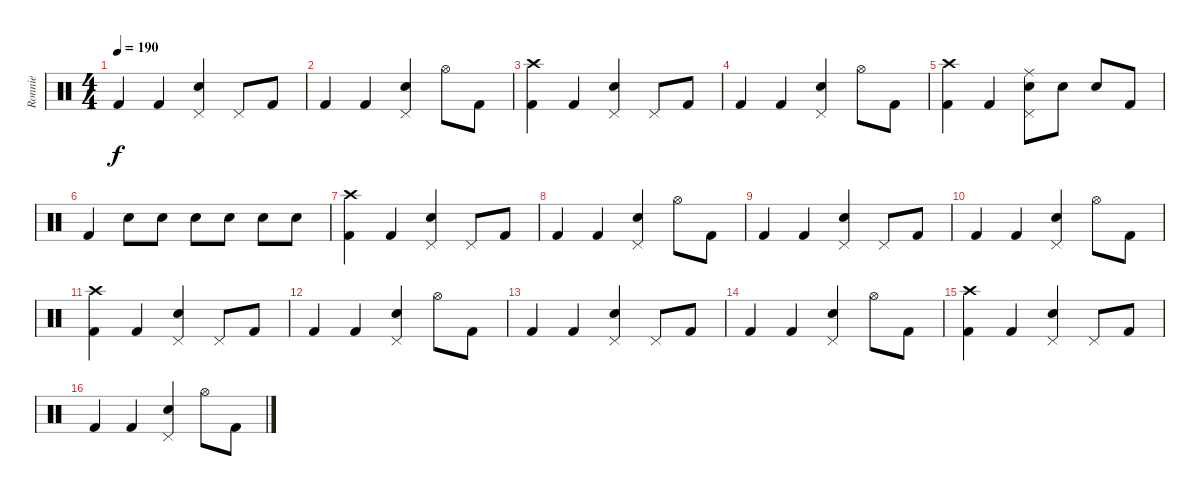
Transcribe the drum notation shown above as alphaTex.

\track ("Ronnie" "Ronnie") {instrument percussion}
\staff {score}
\articulation defaults
\ts (4 4)
\tempo 190
\clef neutral
\ks c "Kick (hit) 2".4{dy f} "Kick (hit) 2".4
("Electric Snare (hit)" "Pedal Hi-Hat (hit)").4 "Pedal Hi-Hat (hit)".8 "Kick (hit) 2".8 |
"Kick (hit) 2".4 "Kick (hit) 2".4 ("Electric Snare (hit)" "Pedal Hi-Hat (hit)").4 "Hi-Hat (open)".8 "Kick (hit) 2".8 |
("Crash high (hit)" "Kick (hit) 2").4 "Kick (hit) 2".4 ("Electric Snare (hit)" "Pedal Hi-Hat (hit)").4 "Pedal Hi-Hat (hit)".8 "Kick (hit) 2".8 |
"Kick (hit) 2".4 "Kick (hit) 2".4 ("Electric Snare (hit)" "Pedal Hi-Hat (hit)").4 "Hi-Hat (open)".8 "Kick (hit) 2".8 |
("Crash high (hit)" "Kick (hit) 2").4 "Kick (hit) 2".4 ("Ride (middle)" "Pedal Hi-Hat (hit)" "Electric Snare (hit)").8 "Electric Snare (hit)".8 "Electric Snare (hit)".8 "Kick (hit) 2".8 |
"Kick (hit) 2".4 "Electric Snare (hit)".8 "Electric Snare (hit)".8 "Electric Snare (hit)".8 "Electric Snare (hit)".8 "Electric Snare (hit)".8 "Electric Snare (hit)".8 |
("Crash high (hit)" "Kick (hit) 2").4 "Kick (hit) 2".4 ("Electric Snare (hit)" "Pedal Hi-Hat (hit)").4 "Pedal Hi-Hat (hit)".8 "Kick (hit) 2".8 |
"Kick (hit) 2".4 "Kick (hit) 2".4 ("Electric Snare (hit)" "Pedal Hi-Hat (hit)").4 "Hi-Hat (open)".8 "Kick (hit) 2".8 |
"Kick (hit) 2".4 "Kick (hit) 2".4 ("Electric Snare (hit)" "Pedal Hi-Hat (hit)").4 "Pedal Hi-Hat (hit)".8 "Kick (hit) 2".8 |
"Kick (hit) 2".4 "Kick (hit) 2".4 ("Electric Snare (hit)" "Pedal Hi-Hat (hit)").4 "Hi-Hat (open)".8 "Kick (hit) 2".8 |
("Crash high (hit)" "Kick (hit) 2").4 "Kick (hit) 2".4 ("Electric Snare (hit)" "Pedal Hi-Hat (hit)").4 "Pedal Hi-Hat (hit)".8 "Kick (hit) 2".8 |
"Kick (hit) 2".4 "Kick (hit) 2".4 ("Electric Snare (hit)" "Pedal Hi-Hat (hit)").4 "Hi-Hat (open)".8 "Kick (hit) 2".8 |
"Kick (hit) 2".4 "Kick (hit) 2".4 ("Electric Snare (hit)" "Pedal Hi-Hat (hit)").4 "Pedal Hi-Hat (hit)".8 "Kick (hit) 2".8 |
"Kick (hit) 2".4 "Kick (hit) 2".4 ("Electric Snare (hit)" "Pedal Hi-Hat (hit)").4 "Hi-Hat (open)".8 "Kick (hit) 2".8 |
("Crash high (hit)" "Kick (hit) 2").4 "Kick (hit) 2".4 ("Electric Snare (hit)" "Pedal Hi-Hat (hit)").4 "Pedal Hi-Hat (hit)".8 "Kick (hit) 2".8 |
"Kick (hit) 2".4 "Kick (hit) 2".4 ("Electric Snare (hit)" "Pedal Hi-Hat (hit)").4 "Hi-Hat (open)".8 "Kick (hit) 2".8
